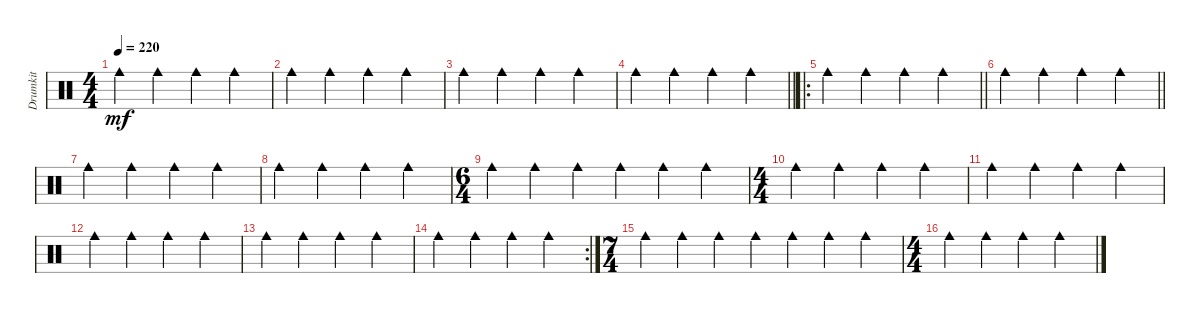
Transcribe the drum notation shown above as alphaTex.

\track ("Drumkit" "Drumkit") {instrument percussion}
\staff {score}
\articulation defaults
\ts (4 4)
\tempo 220
\clef neutral
\ks c "Cowbell medium (hit)".4{dy mf} "Cowbell medium (hit)".4 "Cowbell medium (hit)".4 "Cowbell medium (hit)".4
|
"Cowbell medium (hit)".4 "Cowbell medium (hit)".4 "Cowbell medium (hit)".4 "Cowbell medium (hit)".4 |
"Cowbell medium (hit)".4 "Cowbell medium (hit)".4 "Cowbell medium (hit)".4 "Cowbell medium (hit)".4 |
\barLineRight lightlight "Cowbell medium (hit)".4 "Cowbell medium (hit)".4 "Cowbell medium (hit)".4 "Cowbell medium (hit)".4
|
\ro
\section ("" "")
\barLineRight lightlight "Cowbell medium (hit)".4 "Cowbell medium (hit)".4 "Cowbell medium (hit)".4 "Cowbell medium (hit)".4
|
\section ("" "")
\barLineRight lightlight "Cowbell medium (hit)".4 "Cowbell medium (hit)".4 "Cowbell medium (hit)".4 "Cowbell medium (hit)".4
|
\section ("" "")
"Cowbell medium (hit)".4 "Cowbell medium (hit)".4 "Cowbell medium (hit)".4 "Cowbell medium (hit)".4 |
"Cowbell medium (hit)".4 "Cowbell medium (hit)".4 "Cowbell medium (hit)".4 "Cowbell medium (hit)".4 |
\ts (6 4)
"Cowbell medium (hit)".4 "Cowbell medium (hit)".4 "Cowbell medium (hit)".4 "Cowbell medium (hit)".4 "Cowbell medium (hit)".4 "Cowbell medium (hit)".4 |
\ts (4 4)
"Cowbell medium (hit)".4 "Cowbell medium (hit)".4 "Cowbell medium (hit)".4 "Cowbell medium (hit)".4 |
"Cowbell medium (hit)".4 "Cowbell medium (hit)".4 "Cowbell medium (hit)".4 "Cowbell medium (hit)".4 |
"Cowbell medium (hit)".4 "Cowbell medium (hit)".4 "Cowbell medium (hit)".4 "Cowbell medium (hit)".4 |
"Cowbell medium (hit)".4 "Cowbell medium (hit)".4 "Cowbell medium (hit)".4 "Cowbell medium (hit)".4 |
\rc 2 "Cowbell medium (hit)".4 "Cowbell medium (hit)".4 "Cowbell medium (hit)".4 "Cowbell medium (hit)".4
|
\ts (7 4)
"Cowbell medium (hit)".4 "Cowbell medium (hit)".4 "Cowbell medium (hit)".4 "Cowbell medium (hit)".4 "Cowbell medium (hit)".4 "Cowbell medium (hit)".4 "Cowbell medium (hit)".4 |
\ts (4 4)
"Cowbell medium (hit)".4 "Cowbell medium (hit)".4 "Cowbell medium (hit)".4 "Cowbell medium (hit)".4
